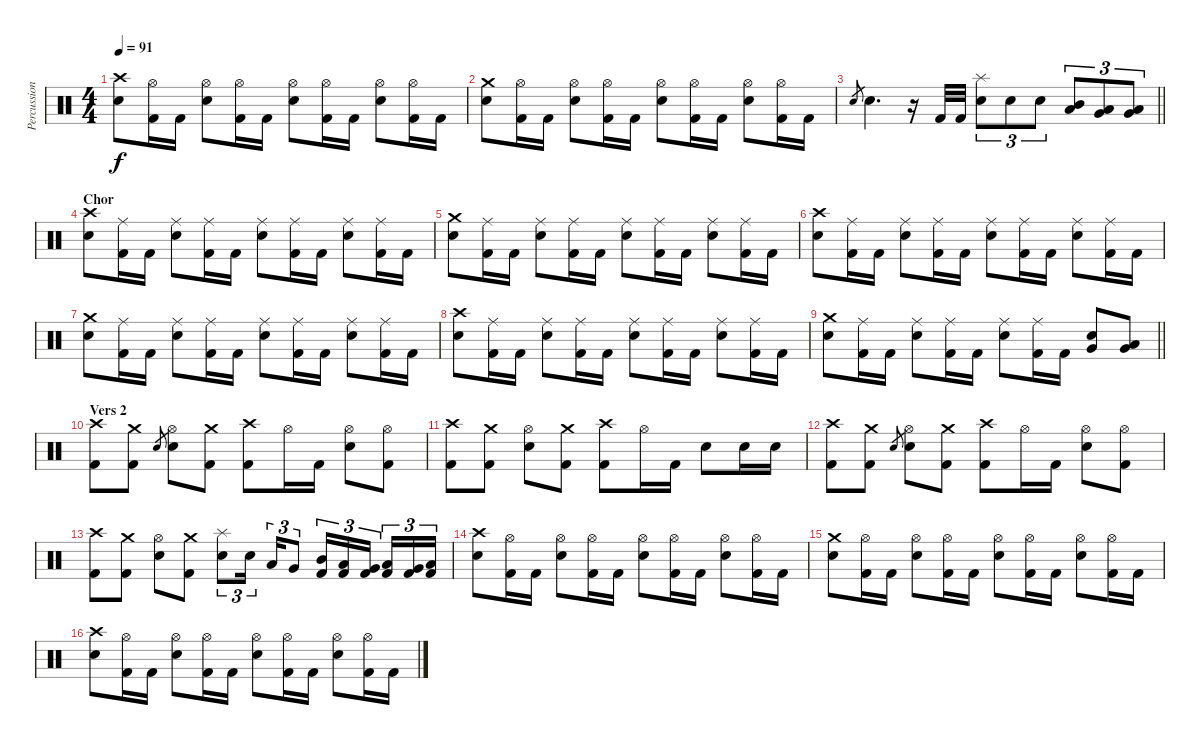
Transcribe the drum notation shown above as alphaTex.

\track ("Percussion" "Percussion") {instrument percussion}
\staff {score}
\articulation defaults
\ts (4 4)
\tempo 91
\clef neutral
\ks c
("Snare (hit) 2" "Crash high (hit)").8{dy f} ("Hi-Hat (open)" "Kick (hit) 2").16 "Kick (hit) 2".16 ("Snare (hit) 2" "Hi-Hat (open)").8 ("Hi-Hat (open)" "Kick (hit) 2").16 "Kick (hit) 2".16 ("Snare (hit) 2" "Hi-Hat (open)").8 ("Hi-Hat (open)" "Kick (hit) 2").16 "Kick (hit) 2".16 ("Snare (hit) 2" "Hi-Hat (open)").8 ("Hi-Hat (open)" "Kick (hit) 2").16 "Kick (hit) 2".16 |
("Snare (hit) 2" "Crash medium (hit)").8 ("Hi-Hat (open)" "Kick (hit) 2").16 "Kick (hit) 2".16 ("Snare (hit) 2" "Hi-Hat (open)").8 ("Hi-Hat (open)" "Kick (hit) 2").16 "Kick (hit) 2".16 ("Snare (hit) 2" "Hi-Hat (open)").8 ("Hi-Hat (open)" "Kick (hit) 2").16 "Kick (hit) 2".16 ("Snare (hit) 2" "Hi-Hat (open)").8 ("Hi-Hat (open)" "Kick (hit) 2").16 "Kick (hit) 2".16 |
\barLineRight lightlight "Snare (hit) 2".8{gr} "Snare (hit) 2".4{d}
r.16 "Kick (hit) 2".32 "Kick (hit) 2".32 ("Snare (hit) 2" "Splash (hit)").8{tu (3 2)} "Snare (hit) 2".8{tu (3 2)} "Snare (hit) 2".8{tu (3 2)} ("Mid Tom (hit)" "Low Tom (hit)").8{tu (3 2)} ("Low Tom (hit)" "Very Low Tom (hit)").8{tu (3 2)} ("Very Low Tom (hit)" "Low Floor Tom (hit)").8{tu (3 2)} |
\section ("" "Chor ")
("Snare (hit) 2" "Crash high (hit)").8 ("Ride (middle)" "Kick (hit) 2").16 "Kick (hit) 2".16 ("Snare (hit) 2" "Ride (middle)").8 ("Ride (middle)" "Kick (hit) 2").16 "Kick (hit) 2".16 ("Snare (hit) 2" "Ride (middle)").8 ("Ride (middle)" "Kick (hit) 2").16 "Kick (hit) 2".16 ("Snare (hit) 2" "Ride (middle)").8 ("Ride (middle)" "Kick (hit) 2").16 "Kick (hit) 2".16 |
("Snare (hit) 2" "Crash medium (hit)").8 ("Ride (middle)" "Kick (hit) 2").16 "Kick (hit) 2".16 ("Snare (hit) 2" "Ride (middle)").8 ("Ride (middle)" "Kick (hit) 2").16 "Kick (hit) 2".16 ("Snare (hit) 2" "Ride (middle)").8 ("Ride (middle)" "Kick (hit) 2").16 "Kick (hit) 2".16 ("Snare (hit) 2" "Ride (middle)").8 ("Ride (middle)" "Kick (hit) 2").16 "Kick (hit) 2".16 |
("Snare (hit) 2" "Crash high (hit)").8 ("Ride (middle)" "Kick (hit) 2").16 "Kick (hit) 2".16 ("Snare (hit) 2" "Ride (middle)").8 ("Ride (middle)" "Kick (hit) 2").16 "Kick (hit) 2".16 ("Snare (hit) 2" "Ride (middle)").8 ("Ride (middle)" "Kick (hit) 2").16 "Kick (hit) 2".16 ("Snare (hit) 2" "Ride (middle)").8 ("Ride (middle)" "Kick (hit) 2").16 "Kick (hit) 2".16 |
("Snare (hit) 2" "Crash medium (hit)").8 ("Ride (middle)" "Kick (hit) 2").16 "Kick (hit) 2".16 ("Snare (hit) 2" "Ride (middle)").8 ("Ride (middle)" "Kick (hit) 2").16 "Kick (hit) 2".16 ("Snare (hit) 2" "Ride (middle)").8 ("Ride (middle)" "Kick (hit) 2").16 "Kick (hit) 2".16 ("Snare (hit) 2" "Ride (middle)").8 ("Ride (middle)" "Kick (hit) 2").16 "Kick (hit) 2".16 |
("Snare (hit) 2" "Crash high (hit)").8 ("Ride (middle)" "Kick (hit) 2").16 "Kick (hit) 2".16 ("Snare (hit) 2" "Ride (middle)").8 ("Ride (middle)" "Kick (hit) 2").16 "Kick (hit) 2".16 ("Snare (hit) 2" "Ride (middle)").8 ("Ride (middle)" "Kick (hit) 2").16 "Kick (hit) 2".16 ("Snare (hit) 2" "Ride (middle)").8 ("Ride (middle)" "Kick (hit) 2").16 "Kick (hit) 2".16 |
\barLineRight lightlight
("Snare (hit) 2" "Crash medium (hit)").8 ("Ride (middle)" "Kick (hit) 2").16 "Kick (hit) 2".16 ("Snare (hit) 2" "Ride (middle)").8 ("Ride (middle)" "Kick (hit) 2").16 "Kick (hit) 2".16 ("Snare (hit) 2" "Ride (middle)").8 ("Ride (middle)" "Kick (hit) 2").16 "Kick (hit) 2".16 ("Very Low Tom (hit)" "Snare (hit) 2").8 ("Very Low Tom (hit)" "Low Floor Tom (hit)").8 |
\section ("" "Vers 2")
("Crash high (hit)" "Kick (hit) 2").8 ("Crash medium (hit)" "Kick (hit) 2").8 "Snare (hit) 2".8{gr} ("Snare (hit) 2" "Hi-Hat (open)").8 ("Crash medium (hit)" "Kick (hit) 2").8 ("Crash high (hit)" "Kick (hit) 2").8 "Hi-Hat (open)".16 "Kick (hit) 2".16 ("Snare (hit) 2" "Hi-Hat (open)").8 ("Hi-Hat (open)" "Kick (hit) 2").8 |
("Crash high (hit)" "Kick (hit) 2").8 ("Crash medium (hit)" "Kick (hit) 2").8 ("Snare (hit) 2" "Hi-Hat (open)").8 ("Crash medium (hit)" "Kick (hit) 2").8 ("Crash high (hit)" "Kick (hit) 2").8 "Hi-Hat (open)".16 "Kick (hit) 2".16 "Snare (hit) 2".8 "Snare (hit) 2".16 "Snare (hit) 2".16 |
("Crash high (hit)" "Kick (hit) 2").8 ("Crash medium (hit)" "Kick (hit) 2").8 "Snare (hit) 2".8{gr} ("Snare (hit) 2" "Hi-Hat (open)").8 ("Crash medium (hit)" "Kick (hit) 2").8 ("Crash high (hit)" "Kick (hit) 2").8 "Hi-Hat (open)".16 "Kick (hit) 2".16 ("Snare (hit) 2" "Hi-Hat (open)").8 ("Hi-Hat (open)" "Kick (hit) 2").8 |
("Crash high (hit)" "Kick (hit) 2").8 ("Crash medium (hit)" "Kick (hit) 2").8 ("Snare (hit) 2" "Hi-Hat (open)").8 ("Crash medium (hit)" "Kick (hit) 2").8 ("Snare (hit) 2" "Splash (hit)").8{tu (3 2)} "Snare (hit) 2".16{tu (3 2) beam splitsecondary} "Low Tom (hit)".16{tu (3 2)} "Very Low Tom (hit)".8{tu (3 2)} ("Mid Tom (hit)" "Kick (hit) 2").16{tu (3 2)} ("Low Tom (hit)" "Kick (hit) 2").16{tu (3 2)} ("Very Low Tom (hit)" "Kick (hit) 2").16{tu (3 2) beam splitsecondary} ("Low Tom (hit)" "Kick (hit) 2").16{tu (3 2)} ("Very Low Tom (hit)" "Kick (hit) 2").16{tu (3 2)} ("Low Floor Tom (hit)" "Kick (hit) 2").16{tu (3 2)} |
("Snare (hit) 2" "Crash high (hit)").8 ("Hi-Hat (open)" "Kick (hit) 2").16 "Kick (hit) 2".16 ("Snare (hit) 2" "Hi-Hat (open)").8 ("Hi-Hat (open)" "Kick (hit) 2").16 "Kick (hit) 2".16 ("Snare (hit) 2" "Hi-Hat (open)").8 ("Hi-Hat (open)" "Kick (hit) 2").16 "Kick (hit) 2".16 ("Snare (hit) 2" "Hi-Hat (open)").8 ("Hi-Hat (open)" "Kick (hit) 2").16 "Kick (hit) 2".16 |
("Snare (hit) 2" "Crash medium (hit)").8 ("Hi-Hat (open)" "Kick (hit) 2").16 "Kick (hit) 2".16 ("Snare (hit) 2" "Hi-Hat (open)").8 ("Hi-Hat (open)" "Kick (hit) 2").16 "Kick (hit) 2".16 ("Snare (hit) 2" "Hi-Hat (open)").8 ("Hi-Hat (open)" "Kick (hit) 2").16 "Kick (hit) 2".16 ("Snare (hit) 2" "Hi-Hat (open)").8 ("Hi-Hat (open)" "Kick (hit) 2").16 "Kick (hit) 2".16 |
("Snare (hit) 2" "Crash high (hit)").8 ("Hi-Hat (open)" "Kick (hit) 2").16 "Kick (hit) 2".16 ("Snare (hit) 2" "Hi-Hat (open)").8 ("Hi-Hat (open)" "Kick (hit) 2").16 "Kick (hit) 2".16 ("Snare (hit) 2" "Hi-Hat (open)").8 ("Hi-Hat (open)" "Kick (hit) 2").16 "Kick (hit) 2".16 ("Snare (hit) 2" "Hi-Hat (open)").8 ("Hi-Hat (open)" "Kick (hit) 2").16 "Kick (hit) 2".16
